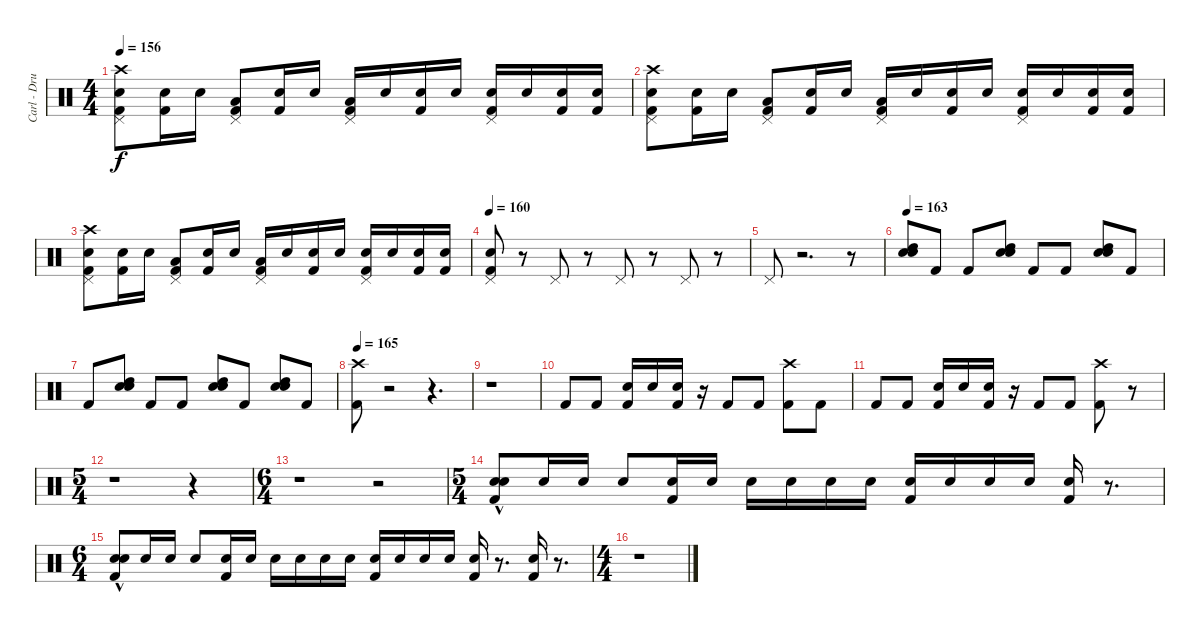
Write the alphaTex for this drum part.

\track ("Carl - Drums" "Carl - Dru") {instrument percussion}
\staff {score}
\articulation defaults
\ts (4 4)
\tempo 156
\clef neutral
\ks c
("Electric Snare (hit)" "Pedal Hi-Hat (hit)" "Kick (hit) 2" "Crash high (hit)").8{dy f} ("Electric Snare (hit)" "Kick (hit) 2").16 "Electric Snare (hit)".16 ("Low Floor Tom (hit)" "Pedal Hi-Hat (hit)" "Kick (hit) 2").8 ("Electric Snare (hit)" "Kick (hit) 2").16 "Electric Snare (hit)".16 ("Low Floor Tom (hit)" "Pedal Hi-Hat (hit)" "Kick (hit) 2").16 "Electric Snare (hit)".16 ("Electric Snare (hit)" "Kick (hit) 2").16 "Electric Snare (hit)".16 ("Electric Snare (hit)" "Pedal Hi-Hat (hit)" "Kick (hit) 2").16 "Electric Snare (hit)".16 ("Electric Snare (hit)" "Kick (hit) 2").16 ("Electric Snare (hit)" "Kick (hit) 2").16 |
("Electric Snare (hit)" "Pedal Hi-Hat (hit)" "Kick (hit) 2" "Crash high (hit)").8 ("Electric Snare (hit)" "Kick (hit) 2").16 "Electric Snare (hit)".16 ("Low Floor Tom (hit)" "Pedal Hi-Hat (hit)" "Kick (hit) 2").8 ("Electric Snare (hit)" "Kick (hit) 2").16 "Electric Snare (hit)".16 ("Low Floor Tom (hit)" "Pedal Hi-Hat (hit)" "Kick (hit) 2").16 "Electric Snare (hit)".16 ("Electric Snare (hit)" "Kick (hit) 2").16 "Electric Snare (hit)".16 ("Electric Snare (hit)" "Pedal Hi-Hat (hit)" "Kick (hit) 2").16 "Electric Snare (hit)".16 ("Electric Snare (hit)" "Kick (hit) 2").16 ("Electric Snare (hit)" "Kick (hit) 2").16 |
("Electric Snare (hit)" "Pedal Hi-Hat (hit)" "Kick (hit) 2" "Crash high (hit)").8 ("Electric Snare (hit)" "Kick (hit) 2").16 "Electric Snare (hit)".16 ("Low Floor Tom (hit)" "Pedal Hi-Hat (hit)" "Kick (hit) 2").8 ("Electric Snare (hit)" "Kick (hit) 2").16 "Electric Snare (hit)".16 ("Low Floor Tom (hit)" "Pedal Hi-Hat (hit)" "Kick (hit) 2").16 "Electric Snare (hit)".16 ("Electric Snare (hit)" "Kick (hit) 2").16 "Electric Snare (hit)".16 ("Electric Snare (hit)" "Pedal Hi-Hat (hit)" "Kick (hit) 2").16 "Electric Snare (hit)".16 ("Electric Snare (hit)" "Kick (hit) 2").16 ("Electric Snare (hit)" "Kick (hit) 2").16 |
\tempo 161
\tempo 160
("Electric Snare (hit)" "Pedal Hi-Hat (hit)" "Kick (hit) 2").8 r.8 "Pedal Hi-Hat (hit)".8 r.8 "Pedal Hi-Hat (hit)".8 r.8 "Pedal Hi-Hat (hit)".8 r.8 |
"Pedal Hi-Hat (hit)".8 r.2{d} r.8 |
\tempo 163
("Electric Snare (hit)" "Electric Snare (hit)" "High Tom (hit)").8 "Kick (hit) 2".8 "Kick (hit) 2".8 ("Electric Snare (hit)" "Electric Snare (hit)" "High Tom (hit)").8 "Kick (hit) 2".8 "Kick (hit) 2".8 ("Electric Snare (hit)" "Electric Snare (hit)" "High Tom (hit)").8 "Kick (hit) 2".8 |
"Kick (hit) 2".8 ("Electric Snare (hit)" "Electric Snare (hit)" "High Tom (hit)").8 "Kick (hit) 2".8 "Kick (hit) 2".8 ("Electric Snare (hit)" "Electric Snare (hit)" "High Tom (hit)").8 "Kick (hit) 2".8 ("Electric Snare (hit)" "Electric Snare (hit)" "High Tom (hit)").8 "Kick (hit) 2".8 |
\tempo 166
\tempo 165
("Kick (hit) 2" "Crash high (hit)").8 r.2 r.4{d} |
r.1 |
"Kick (hit) 2".8 "Kick (hit) 2".8 ("Electric Snare (hit)" "Kick (hit) 2").16 "Electric Snare (hit)".16 ("Electric Snare (hit)" "Kick (hit) 2").16 r.16 "Kick (hit) 2".8 "Kick (hit) 2".8 ("Kick (hit) 2" "Crash high (hit)").8 "Kick (hit) 2".8 |
"Kick (hit) 2".8 "Kick (hit) 2".8 ("Electric Snare (hit)" "Kick (hit) 2").16 "Electric Snare (hit)".16 ("Electric Snare (hit)" "Kick (hit) 2").16 r.16 "Kick (hit) 2".8 "Kick (hit) 2".8 ("Kick (hit) 2" "Crash high (hit)").8 r.8 |
\ts (5 4)
r.1 r.4 |
\ts (6 4)
r.1 r.2 |
\ts (5 4)
("Electric Snare (hit)" "Electric Snare (hit)"{hac} "Kick (hit) 2").8 "Electric Snare (hit)".16 "Electric Snare (hit)".16 "Electric Snare (hit)".8 ("Electric Snare (hit)" "Kick (hit) 2").16 "Electric Snare (hit)".16 "Electric Snare (hit)".16 "Electric Snare (hit)".16 "Electric Snare (hit)".16 "Electric Snare (hit)".16 ("Electric Snare (hit)" "Kick (hit) 2").16 "Electric Snare (hit)".16 "Electric Snare (hit)".16 "Electric Snare (hit)".16 ("Electric Snare (hit)" "Kick (hit) 2").16 r.8{d} |
\ts (6 4)
("Electric Snare (hit)" "Electric Snare (hit)"{hac} "Kick (hit) 2").8 "Electric Snare (hit)".16 "Electric Snare (hit)".16 "Electric Snare (hit)".8 ("Electric Snare (hit)" "Kick (hit) 2").16 "Electric Snare (hit)".16 "Electric Snare (hit)".16 "Electric Snare (hit)".16 "Electric Snare (hit)".16 "Electric Snare (hit)".16 ("Electric Snare (hit)" "Kick (hit) 2").16 "Electric Snare (hit)".16 "Electric Snare (hit)".16 "Electric Snare (hit)".16 ("Electric Snare (hit)" "Kick (hit) 2").16 r.8{d} ("Electric Snare (hit)" "Kick (hit) 2").16 r.8{d} |
\ts (4 4)
r.1
